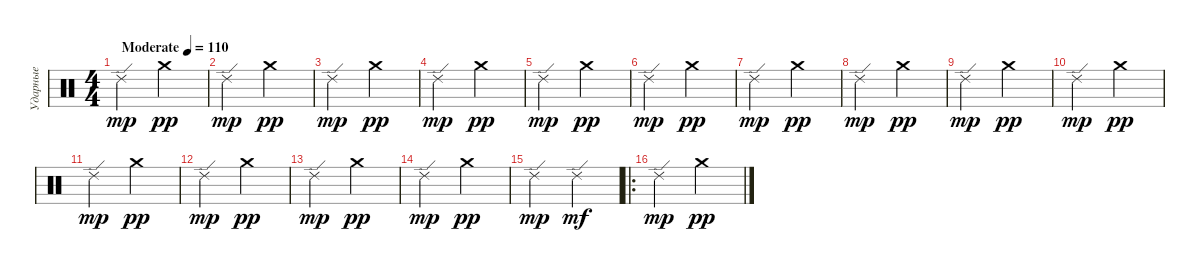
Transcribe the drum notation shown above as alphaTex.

\track ("Ударные" "Ударные") {instrument percussion}
\staff {score}
\articulation defaults
\ts (4 4)
\tempo (110 "Moderate")
\clef neutral
\ks c "Ride (edge) 2".2{dy mp} "Crash medium (hit)".2{dy pp}
|
"Ride (edge) 2".2{dy mp} "Crash medium (hit)".2{dy pp} |
"Ride (edge) 2".2{dy mp} "Crash medium (hit)".2{dy pp} |
"Ride (edge) 2".2{dy mp} "Crash medium (hit)".2{dy pp} |
"Ride (edge) 2".2{dy mp} "Crash medium (hit)".2{dy pp} |
"Ride (edge) 2".2{dy mp} "Crash medium (hit)".2{dy pp} |
"Ride (edge) 2".2{dy mp} "Crash medium (hit)".2{dy pp} |
"Ride (edge) 2".2{dy mp} "Crash medium (hit)".2{dy pp} |
"Ride (edge) 2".2{dy mp} "Crash medium (hit)".2{dy pp} |
"Ride (edge) 2".2{dy mp} "Crash medium (hit)".2{dy pp} |
"Ride (edge) 2".2{dy mp} "Crash medium (hit)".2{dy pp} |
"Ride (edge) 2".2{dy mp} "Crash medium (hit)".2{dy pp} |
"Ride (edge) 2".2{dy mp} "Crash medium (hit)".2{dy pp} |
"Ride (edge) 2".2{dy mp} "Crash medium (hit)".2{dy pp} |
"Ride (edge) 2".2{dy mp} "Ride (edge) 2".2{dy mf} |
\ro "Ride (edge) 2".2{dy mp} "Crash medium (hit)".2{dy pp}
